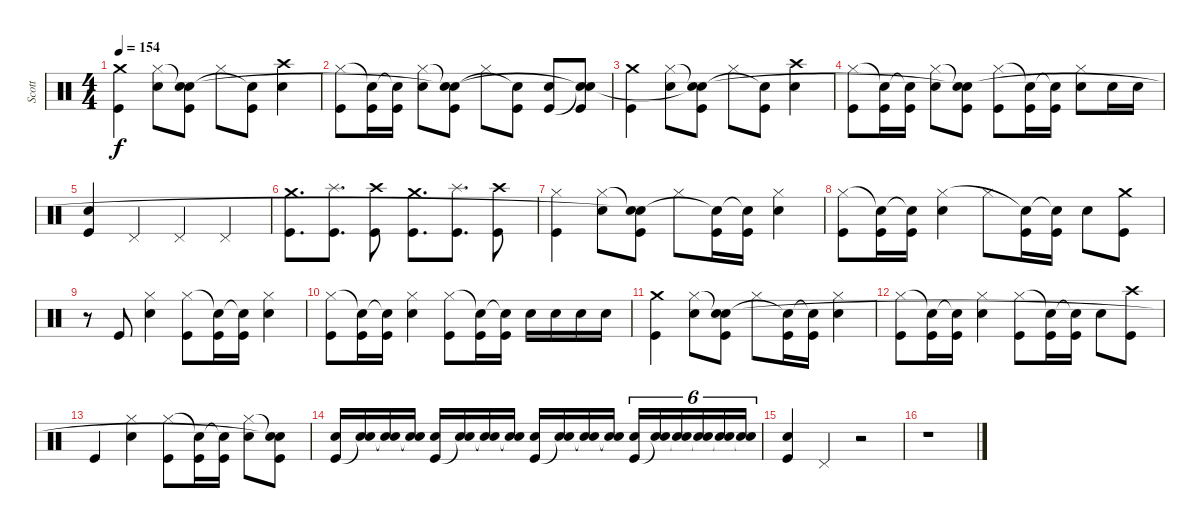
\track ("Scott" "Scott") {instrument percussion}
\staff {score}
\articulation defaults
\ts (4 4)
\tempo 154
\clef neutral
\ks c
("Kick (hit)" "Crash medium (hit)").4{dy f} ("Snare (hit) 2" "Hi-Hat (closed)").8 ("Kick (hit)" "Snare (hit)"{t} "Snare (hit)"{t}).8 "Hi-Hat (closed)".8 ("Kick (hit)" "Snare (hit)"{t}).8 ("Snare (hit) 2" "Crash high (hit)").4 |
("Kick (hit)" "Hi-Hat (closed)").8 ("Kick (hit)" "Snare (hit)"{t}).16 ("Kick (hit)" "Snare (hit)"{t}).16 ("Snare (hit) 2" "Hi-Hat (closed)").8 ("Kick (hit)" "Snare (hit)"{t} "Snare (hit)"{t}).8 "Hi-Hat (closed)".8 ("Kick (hit)" "Snare (hit)"{t}).8 ("Snare (hit) 2" "Kick (hit)").8 ("Kick (hit)" "Snare (hit)"{t} "Snare (hit)"{t}).8 |
("Kick (hit)" "Crash medium (hit)").4 ("Snare (hit) 2" "Hi-Hat (closed)").8 ("Kick (hit)" "Snare (hit)"{t} "Snare (hit)"{t}).8 "Hi-Hat (closed)".8 ("Kick (hit)" "Snare (hit)"{t}).8 ("Snare (hit) 2" "Crash high (hit)").4 |
("Kick (hit)" "Hi-Hat (closed)").8 ("Kick (hit)" "Snare (hit)"{t}).16 ("Kick (hit)" "Snare (hit)"{t}).16 ("Snare (hit) 2" "Hi-Hat (closed)").8 ("Kick (hit)" "Snare (hit)"{t} "Snare (hit)"{t}).8 ("Kick (hit)" "Hi-Hat (closed)").8 ("Kick (hit)" "Snare (hit)"{t}).16 ("Kick (hit)" "Snare (hit)"{t}).16 ("Snare (hit) 2" "Hi-Hat (closed)").8 "Snare (hit) 2".16 "Snare (hit) 2".16 |
("Kick (hit)" "Snare (hit) 2").4 "Pedal Hi-Hat (hit)".4 "Pedal Hi-Hat (hit)".4 "Pedal Hi-Hat (hit)".4 |
("Kick (hit)" "Crash medium (hit)").8{d} ("Kick (hit)" "Splash (hit)").8{d} ("Kick (hit)" "Crash high (hit)").8 ("Kick (hit)" "Crash medium (hit)").8{d} ("Kick (hit)" "Splash (hit)").8{d} ("Kick (hit)" "Crash high (hit)").8 |
("Kick (hit)" "Hi-Hat (closed)").4 ("Snare (hit) 2" "Hi-Hat (closed)").8 ("Kick (hit)" "Snare (hit)"{t} "Snare (hit)"{t}).8 "Hi-Hat (closed)".8 ("Kick (hit)" "Snare (hit)"{t}).16 ("Kick (hit)" "Snare (hit)"{t}).16 ("Snare (hit) 2" "Hi-Hat (closed)").4 |
("Kick (hit)" "Hi-Hat (closed)").8 ("Kick (hit)" "Snare (hit)"{t}).16 ("Kick (hit)" "Snare (hit)"{t}).16 ("Snare (hit) 2" "Hi-Hat (closed)").4 "Hi-Hat (closed)".8 ("Kick (hit)" "Snare (hit)"{t}).16 ("Kick (hit)" "Snare (hit)"{t}).16 "Snare (hit) 2".8 ("Kick (hit)" "Crash medium (hit)").8 |
r.8 "Kick (hit)".8 ("Snare (hit) 2" "Hi-Hat (closed)").4 ("Kick (hit)" "Hi-Hat (closed)").8 ("Kick (hit)" "Snare (hit)"{t}).16 ("Kick (hit)" "Snare (hit)"{t}).16 ("Snare (hit) 2" "Hi-Hat (closed)").4 |
("Kick (hit)" "Hi-Hat (closed)").8 ("Kick (hit)" "Snare (hit)"{t}).16 ("Kick (hit)" "Snare (hit)"{t}).16 ("Snare (hit) 2" "Hi-Hat (closed)").4 ("Kick (hit)" "Hi-Hat (closed)").8 ("Kick (hit)" "Snare (hit)"{t}).16 ("Kick (hit)" "Snare (hit)"{t}).16 "Snare (hit) 2".16 "Snare (hit) 2".16 "Snare (hit) 2".16 "Snare (hit) 2".16 |
("Kick (hit)" "Crash medium (hit)").4 ("Snare (hit) 2" "Hi-Hat (closed)").8 ("Kick (hit)" "Snare (hit)"{t} "Snare (hit)").8 "Hi-Hat (closed)".8 ("Kick (hit)" "Snare (hit)"{t}).16 ("Kick (hit)" "Snare (hit)"{t}).16 ("Snare (hit) 2" "Hi-Hat (closed)").4 |
("Kick (hit)" "Hi-Hat (closed)").8 ("Kick (hit)" "Snare (hit)"{t}).16 ("Kick (hit)" "Snare (hit)"{t}).16 ("Snare (hit) 2" "Hi-Hat (closed)").4 ("Kick (hit)" "Hi-Hat (closed)").8 ("Kick (hit)" "Snare (hit)"{t}).16 ("Kick (hit)" "Snare (hit)"{t}).16 "Snare (hit) 2".8 ("Kick (hit)" "Crash high (hit)").8 |
"Kick (hit)".4 ("Snare (hit) 2" "Hi-Hat (closed)").4 ("Kick (hit)" "Hi-Hat (closed)").8 ("Kick (hit)" "Snare (hit)"{t}).16 ("Kick (hit)" "Snare (hit)"{t}).16 ("Snare (hit) 2" "Hi-Hat (closed)").8 ("Kick (hit)" "Snare (hit)"{t} "Snare (hit)"{t}).8 |
("Kick (hit)" "Snare (hit) 2").16 ("Snare (hit)"{t} "Snare (hit) 2").16 ("Snare (hit)"{t} "Snare (hit) 2").16 ("Snare (hit)"{t} "Snare (hit) 2").16 ("Kick (hit)" "Snare (hit) 2").16 ("Snare (hit)"{t} "Snare (hit) 2").16 ("Snare (hit)"{t} "Snare (hit) 2").16 ("Snare (hit)"{t} "Snare (hit) 2").16 ("Kick (hit)" "Snare (hit) 2").16 ("Snare (hit)"{t} "Snare (hit) 2").16 ("Snare (hit)"{t} "Snare (hit) 2").16 ("Snare (hit)"{t} "Snare (hit) 2").16 ("Kick (hit)" "Snare (hit) 2").16{tu (6 4)} ("Snare (hit)"{t} "Snare (hit) 2").16{tu (6 4)} ("Snare (hit)"{t} "Snare (hit) 2").16{tu (6 4)} ("Snare (hit)"{t} "Snare (hit) 2").16{tu (6 4)} ("Snare (hit)"{t} "Snare (hit) 2").16{tu (6 4)} ("Snare (hit)"{t} "Snare (hit) 2").16{tu (6 4)} |
("Kick (hit)" "Snare (hit) 2").4 "Pedal Hi-Hat (hit)".4 r.2 |
r.1
